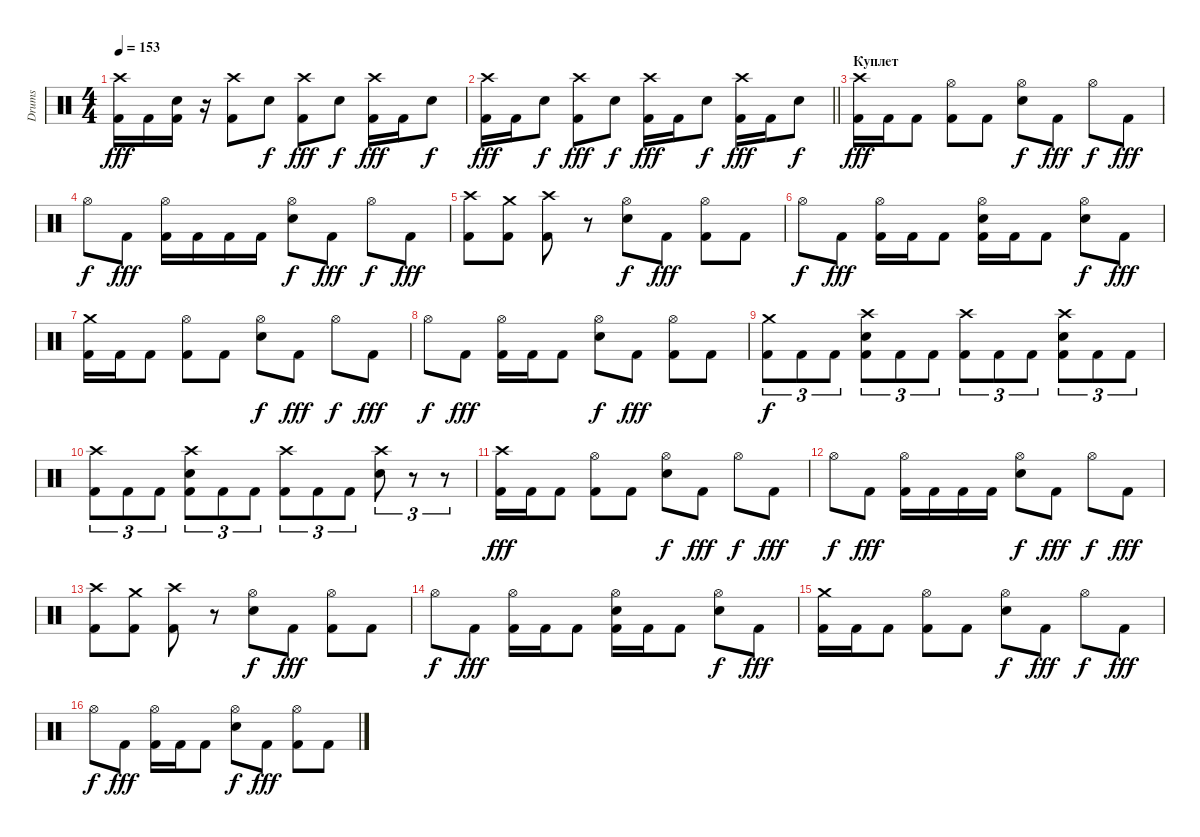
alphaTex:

\track ("Drums" "Drums") {instrument percussion}
\staff {score}
\articulation defaults
\ts (4 4)
\tempo 153
\clef neutral
\ks c
("Crash high (hit)" "Kick (hit) 2").16{dy fff} "Kick (hit) 2".16 ("Electric Snare (hit)" "Kick (hit) 2").16 r.16 ("Crash high (hit)" "Kick (hit) 2").8 "Electric Snare (hit)".8{dy f} ("Crash high (hit)" "Kick (hit) 2").8{dy fff} "Electric Snare (hit)".8{dy f} ("Crash high (hit)" "Kick (hit) 2").16{dy fff} "Kick (hit) 2".16 "Electric Snare (hit)".8{dy f} |
\barLineRight lightlight
("Crash high (hit)" "Kick (hit) 2").16{dy fff} "Kick (hit) 2".16 "Electric Snare (hit)".8{dy f} ("Crash high (hit)" "Kick (hit) 2").8{dy fff} "Electric Snare (hit)".8{dy f} ("Crash high (hit)" "Kick (hit) 2").16{dy fff} "Kick (hit) 2".16 "Electric Snare (hit)".8{dy f} ("Crash high (hit)" "Kick (hit) 2").16{dy fff} "Kick (hit) 2".16 "Electric Snare (hit)".8{dy f} |
\section ("" "Куплет")
("Crash high (hit)" "Kick (hit) 2").16{dy fff} "Kick (hit) 2".16 "Kick (hit) 2".8 ("Hi-Hat (open)" "Kick (hit) 2").8 "Kick (hit) 2".8 ("Hi-Hat (open)" "Electric Snare (hit)").8{dy f} "Kick (hit) 2".8{dy fff} "Hi-Hat (open)".8{dy f} "Kick (hit) 2".8{dy fff} |
"Hi-Hat (open)".8{dy f} "Kick (hit) 2".8{dy fff} ("Hi-Hat (open)" "Kick (hit) 2").16 "Kick (hit) 2".16 "Kick (hit) 2".16 "Kick (hit) 2".16 ("Hi-Hat (open)" "Electric Snare (hit)").8{dy f} "Kick (hit) 2".8{dy fff} "Hi-Hat (open)".8{dy f} "Kick (hit) 2".8{dy fff} |
("Crash high (hit)" "Kick (hit) 2").8 ("Crash medium (hit)" "Kick (hit) 2").8 ("Crash high (hit)" "Kick (hit) 2").8 r.8 ("Hi-Hat (open)" "Electric Snare (hit)").8{dy f} "Kick (hit) 2".8{dy fff} ("Hi-Hat (open)" "Kick (hit) 2").8 "Kick (hit) 2".8 |
"Hi-Hat (open)".8{dy f} "Kick (hit) 2".8{dy fff} ("Hi-Hat (open)" "Kick (hit) 2").16 "Kick (hit) 2".16 "Kick (hit) 2".8 ("Hi-Hat (open)" "Electric Snare (hit)" "Kick (hit) 2").16 "Kick (hit) 2".16 "Kick (hit) 2".8 ("Hi-Hat (open)" "Electric Snare (hit)").8{dy f} "Kick (hit) 2".8{dy fff} |
("Crash medium (hit)" "Kick (hit) 2").16 "Kick (hit) 2".16 "Kick (hit) 2".8 ("Hi-Hat (open)" "Kick (hit) 2").8 "Kick (hit) 2".8 ("Hi-Hat (open)" "Electric Snare (hit)").8{dy f} "Kick (hit) 2".8{dy fff} "Hi-Hat (open)".8{dy f} "Kick (hit) 2".8{dy fff} |
"Hi-Hat (open)".8{dy f} "Kick (hit) 2".8{dy fff} ("Hi-Hat (open)" "Kick (hit) 2").16 "Kick (hit) 2".16 "Kick (hit) 2".8 ("Hi-Hat (open)" "Electric Snare (hit)").8{dy f} "Kick (hit) 2".8{dy fff} ("Hi-Hat (open)" "Kick (hit) 2").8 "Kick (hit) 2".8 |
("Crash medium (hit)" "Kick (hit) 2").8{tu (3 2) dy f} "Kick (hit) 2".8{tu (3 2)} "Kick (hit) 2".8{tu (3 2)} ("Crash high (hit)" "Electric Snare (hit)" "Kick (hit) 2").8{tu (3 2)} "Kick (hit) 2".8{tu (3 2)} "Kick (hit) 2".8{tu (3 2)} ("Crash high (hit)" "Kick (hit) 2").8{tu (3 2)} "Kick (hit) 2".8{tu (3 2)} "Kick (hit) 2".8{tu (3 2)} ("Crash high (hit)" "Electric Snare (hit)" "Kick (hit) 2").8{tu (3 2)} "Kick (hit) 2".8{tu (3 2)} "Kick (hit) 2".8{tu (3 2)} |
("Crash high (hit)" "Kick (hit) 2").8{tu (3 2)} "Kick (hit) 2".8{tu (3 2)} "Kick (hit) 2".8{tu (3 2)} ("Crash high (hit)" "Electric Snare (hit)" "Kick (hit) 2").8{tu (3 2)} "Kick (hit) 2".8{tu (3 2)} "Kick (hit) 2".8{tu (3 2)} ("Crash high (hit)" "Kick (hit) 2").8{tu (3 2)} "Kick (hit) 2".8{tu (3 2)} "Kick (hit) 2".8{tu (3 2)} ("Crash high (hit)" "Electric Snare (hit)").8{tu (3 2)} r.8{tu (3 2)} r.8{tu (3 2)} |
("Crash high (hit)" "Kick (hit) 2").16{dy fff} "Kick (hit) 2".16 "Kick (hit) 2".8 ("Hi-Hat (open)" "Kick (hit) 2").8 "Kick (hit) 2".8 ("Hi-Hat (open)" "Electric Snare (hit)").8{dy f} "Kick (hit) 2".8{dy fff} "Hi-Hat (open)".8{dy f} "Kick (hit) 2".8{dy fff} |
"Hi-Hat (open)".8{dy f} "Kick (hit) 2".8{dy fff} ("Hi-Hat (open)" "Kick (hit) 2").16 "Kick (hit) 2".16 "Kick (hit) 2".16 "Kick (hit) 2".16 ("Hi-Hat (open)" "Electric Snare (hit)").8{dy f} "Kick (hit) 2".8{dy fff} "Hi-Hat (open)".8{dy f} "Kick (hit) 2".8{dy fff} |
("Crash high (hit)" "Kick (hit) 2").8 ("Crash medium (hit)" "Kick (hit) 2").8 ("Crash high (hit)" "Kick (hit) 2").8 r.8 ("Hi-Hat (open)" "Electric Snare (hit)").8{dy f} "Kick (hit) 2".8{dy fff} ("Hi-Hat (open)" "Kick (hit) 2").8 "Kick (hit) 2".8 |
"Hi-Hat (open)".8{dy f} "Kick (hit) 2".8{dy fff} ("Hi-Hat (open)" "Kick (hit) 2").16 "Kick (hit) 2".16 "Kick (hit) 2".8 ("Hi-Hat (open)" "Electric Snare (hit)" "Kick (hit) 2").16 "Kick (hit) 2".16 "Kick (hit) 2".8 ("Hi-Hat (open)" "Electric Snare (hit)").8{dy f} "Kick (hit) 2".8{dy fff} |
("Crash medium (hit)" "Kick (hit) 2").16 "Kick (hit) 2".16 "Kick (hit) 2".8 ("Hi-Hat (open)" "Kick (hit) 2").8 "Kick (hit) 2".8 ("Hi-Hat (open)" "Electric Snare (hit)").8{dy f} "Kick (hit) 2".8{dy fff} "Hi-Hat (open)".8{dy f} "Kick (hit) 2".8{dy fff} |
"Hi-Hat (open)".8{dy f} "Kick (hit) 2".8{dy fff} ("Hi-Hat (open)" "Kick (hit) 2").16 "Kick (hit) 2".16 "Kick (hit) 2".8 ("Hi-Hat (open)" "Electric Snare (hit)").8{dy f} "Kick (hit) 2".8{dy fff} ("Hi-Hat (open)" "Kick (hit) 2").8 "Kick (hit) 2".8
